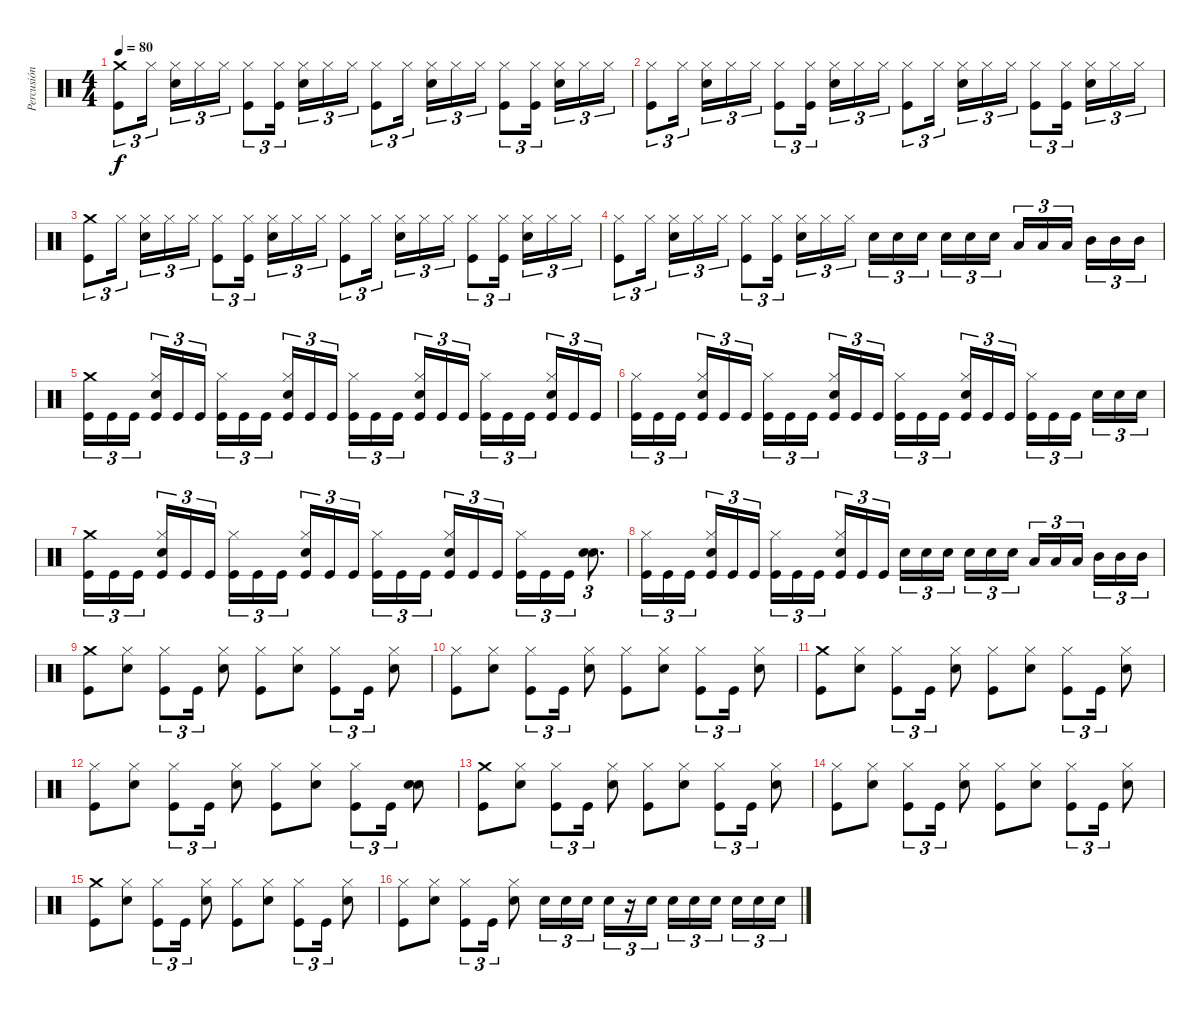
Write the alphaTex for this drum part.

\track ("Percusión con doble bombo" "Percusión ") {mute instrument percussion}
\staff {score}
\articulation defaults
\ts (4 4)
\tempo 80
\clef neutral
\ks c
("Crash medium (hit)" "Kick (hit)").8{tu (3 2) dy f} "Hi-Hat (closed)".16{tu (3 2) beam splitsecondary} ("Hi-Hat (closed)" "Snare (hit) 2").16{tu (3 2)} "Hi-Hat (closed)".16{tu (3 2)} "Hi-Hat (closed)".16{tu (3 2)} ("Hi-Hat (closed)" "Kick (hit)").8{tu (3 2)} ("Hi-Hat (closed)" "Kick (hit)").16{tu (3 2) beam splitsecondary} ("Hi-Hat (closed)" "Snare (hit) 2").16{tu (3 2)} "Hi-Hat (closed)".16{tu (3 2)} "Hi-Hat (closed)".16{tu (3 2)} ("Hi-Hat (closed)" "Kick (hit)").8{tu (3 2)} "Hi-Hat (closed)".16{tu (3 2) beam splitsecondary} ("Hi-Hat (closed)" "Snare (hit) 2").16{tu (3 2)} "Hi-Hat (closed)".16{tu (3 2)} "Hi-Hat (closed)".16{tu (3 2)} ("Hi-Hat (closed)" "Kick (hit)").8{tu (3 2)} ("Hi-Hat (closed)" "Kick (hit)").16{tu (3 2) beam splitsecondary} ("Hi-Hat (closed)" "Snare (hit) 2").16{tu (3 2)} "Hi-Hat (closed)".16{tu (3 2)} "Hi-Hat (closed)".16{tu (3 2)} |
("Hi-Hat (closed)" "Kick (hit)").8{tu (3 2)} "Hi-Hat (closed)".16{tu (3 2) beam splitsecondary} ("Hi-Hat (closed)" "Snare (hit) 2").16{tu (3 2)} "Hi-Hat (closed)".16{tu (3 2)} "Hi-Hat (closed)".16{tu (3 2)} ("Hi-Hat (closed)" "Kick (hit)").8{tu (3 2)} ("Hi-Hat (closed)" "Kick (hit)").16{tu (3 2) beam splitsecondary} ("Hi-Hat (closed)" "Snare (hit) 2").16{tu (3 2)} "Hi-Hat (closed)".16{tu (3 2)} "Hi-Hat (closed)".16{tu (3 2)} ("Hi-Hat (closed)" "Kick (hit)").8{tu (3 2)} "Hi-Hat (closed)".16{tu (3 2) beam splitsecondary} ("Hi-Hat (closed)" "Snare (hit) 2").16{tu (3 2)} "Hi-Hat (closed)".16{tu (3 2)} "Hi-Hat (closed)".16{tu (3 2)} ("Hi-Hat (closed)" "Kick (hit)").8{tu (3 2)} ("Hi-Hat (closed)" "Kick (hit)").16{tu (3 2) beam splitsecondary} ("Hi-Hat (closed)" "Snare (hit) 2").16{tu (3 2)} "Hi-Hat (closed)".16{tu (3 2)} "Hi-Hat (closed)".16{tu (3 2)} |
("Crash medium (hit)" "Kick (hit)").8{tu (3 2)} "Hi-Hat (closed)".16{tu (3 2) beam splitsecondary} ("Hi-Hat (closed)" "Snare (hit) 2").16{tu (3 2)} "Hi-Hat (closed)".16{tu (3 2)} "Hi-Hat (closed)".16{tu (3 2)} ("Hi-Hat (closed)" "Kick (hit)").8{tu (3 2)} ("Hi-Hat (closed)" "Kick (hit)").16{tu (3 2) beam splitsecondary} ("Hi-Hat (closed)" "Snare (hit) 2").16{tu (3 2)} "Hi-Hat (closed)".16{tu (3 2)} "Hi-Hat (closed)".16{tu (3 2)} ("Hi-Hat (closed)" "Kick (hit)").8{tu (3 2)} "Hi-Hat (closed)".16{tu (3 2) beam splitsecondary} ("Hi-Hat (closed)" "Snare (hit) 2").16{tu (3 2)} "Hi-Hat (closed)".16{tu (3 2)} "Hi-Hat (closed)".16{tu (3 2)} ("Hi-Hat (closed)" "Kick (hit)").8{tu (3 2)} ("Hi-Hat (closed)" "Kick (hit)").16{tu (3 2) beam splitsecondary} ("Hi-Hat (closed)" "Snare (hit) 2").16{tu (3 2)} "Hi-Hat (closed)".16{tu (3 2)} "Hi-Hat (closed)".16{tu (3 2)} |
("Hi-Hat (closed)" "Kick (hit)").8{tu (3 2)} "Hi-Hat (closed)".16{tu (3 2) beam splitsecondary} ("Hi-Hat (closed)" "Snare (hit) 2").16{tu (3 2)} "Hi-Hat (closed)".16{tu (3 2)} "Hi-Hat (closed)".16{tu (3 2)} ("Hi-Hat (closed)" "Kick (hit)").8{tu (3 2)} ("Hi-Hat (closed)" "Kick (hit)").16{tu (3 2) beam splitsecondary} ("Hi-Hat (closed)" "Snare (hit) 2").16{tu (3 2)} "Hi-Hat (closed)".16{tu (3 2)} "Hi-Hat (closed)".16{tu (3 2)} "Snare (hit) 2".16{tu (3 2)} "Snare (hit) 2".16{tu (3 2)} "Snare (hit) 2".16{tu (3 2) beam splitsecondary} "Snare (hit) 2".16{tu (3 2)} "Snare (hit) 2".16{tu (3 2)} "Snare (hit) 2".16{tu (3 2)} "Low Tom (hit)".16{tu (3 2)} "Low Tom (hit)".16{tu (3 2)} "Low Tom (hit)".16{tu (3 2) beam splitsecondary} "Mid Tom (hit)".16{tu (3 2)} "Mid Tom (hit)".16{tu (3 2)} "Mid Tom (hit)".16{tu (3 2)} |
("Crash medium (hit)" "Kick (hit)").16{tu (3 2)} "Kick (hit)".16{tu (3 2)} "Kick (hit)".16{tu (3 2) beam splitsecondary} ("Hi-Hat (closed)" "Snare (hit) 2" "Kick (hit)").16{tu (3 2)} "Kick (hit)".16{tu (3 2)} "Kick (hit)".16{tu (3 2)} ("Hi-Hat (closed)" "Kick (hit)").16{tu (3 2)} "Kick (hit)".16{tu (3 2)} "Kick (hit)".16{tu (3 2) beam splitsecondary} ("Hi-Hat (closed)" "Snare (hit) 2" "Kick (hit)").16{tu (3 2)} "Kick (hit)".16{tu (3 2)} "Kick (hit)".16{tu (3 2)} ("Hi-Hat (closed)" "Kick (hit)").16{tu (3 2)} "Kick (hit)".16{tu (3 2)} "Kick (hit)".16{tu (3 2) beam splitsecondary} ("Hi-Hat (closed)" "Snare (hit) 2" "Kick (hit)").16{tu (3 2)} "Kick (hit)".16{tu (3 2)} "Kick (hit)".16{tu (3 2)} ("Hi-Hat (closed)" "Kick (hit)").16{tu (3 2)} "Kick (hit)".16{tu (3 2)} "Kick (hit)".16{tu (3 2) beam splitsecondary} ("Hi-Hat (closed)" "Snare (hit) 2" "Kick (hit)").16{tu (3 2)} "Kick (hit)".16{tu (3 2)} "Kick (hit)".16{tu (3 2)} |
("Hi-Hat (closed)" "Kick (hit)").16{tu (3 2)} "Kick (hit)".16{tu (3 2)} "Kick (hit)".16{tu (3 2) beam splitsecondary} ("Hi-Hat (closed)" "Snare (hit) 2" "Kick (hit)").16{tu (3 2)} "Kick (hit)".16{tu (3 2)} "Kick (hit)".16{tu (3 2)} ("Hi-Hat (closed)" "Kick (hit)").16{tu (3 2)} "Kick (hit)".16{tu (3 2)} "Kick (hit)".16{tu (3 2) beam splitsecondary} ("Hi-Hat (closed)" "Snare (hit) 2" "Kick (hit)").16{tu (3 2)} "Kick (hit)".16{tu (3 2)} "Kick (hit)".16{tu (3 2)} ("Hi-Hat (closed)" "Kick (hit)").16{tu (3 2)} "Kick (hit)".16{tu (3 2)} "Kick (hit)".16{tu (3 2) beam splitsecondary} ("Hi-Hat (closed)" "Snare (hit) 2" "Kick (hit)").16{tu (3 2)} "Kick (hit)".16{tu (3 2)} "Kick (hit)".16{tu (3 2)} ("Hi-Hat (closed)" "Kick (hit)").16{tu (3 2)} "Kick (hit)".16{tu (3 2)} "Kick (hit)".16{tu (3 2) beam splitsecondary} "Snare (hit) 2".16{tu (3 2)} "Snare (hit) 2".16{tu (3 2)} "Snare (hit) 2".16{tu (3 2)} |
("Crash medium (hit)" "Kick (hit)").16{tu (3 2)} "Kick (hit)".16{tu (3 2)} "Kick (hit)".16{tu (3 2) beam splitsecondary} ("Hi-Hat (closed)" "Snare (hit) 2" "Kick (hit)").16{tu (3 2)} "Kick (hit)".16{tu (3 2)} "Kick (hit)".16{tu (3 2)} ("Hi-Hat (closed)" "Kick (hit)").16{tu (3 2)} "Kick (hit)".16{tu (3 2)} "Kick (hit)".16{tu (3 2) beam splitsecondary} ("Hi-Hat (closed)" "Snare (hit) 2" "Kick (hit)").16{tu (3 2)} "Kick (hit)".16{tu (3 2)} "Kick (hit)".16{tu (3 2)} ("Hi-Hat (closed)" "Kick (hit)").16{tu (3 2)} "Kick (hit)".16{tu (3 2)} "Kick (hit)".16{tu (3 2) beam splitsecondary} ("Hi-Hat (closed)" "Snare (hit) 2" "Kick (hit)").16{tu (3 2)} "Kick (hit)".16{tu (3 2)} "Kick (hit)".16{tu (3 2)} ("Hi-Hat (closed)" "Kick (hit)").16{tu (3 2)} "Kick (hit)".16{tu (3 2)} "Kick (hit)".16{tu (3 2)} ("Snare (hit) 2" "Snare (hit) 2").8{d tu (3 2) bd 480} |
("Hi-Hat (closed)" "Kick (hit)").16{tu (3 2)} "Kick (hit)".16{tu (3 2)} "Kick (hit)".16{tu (3 2) beam splitsecondary} ("Hi-Hat (closed)" "Snare (hit) 2" "Kick (hit)").16{tu (3 2)} "Kick (hit)".16{tu (3 2)} "Kick (hit)".16{tu (3 2)} ("Hi-Hat (closed)" "Kick (hit)").16{tu (3 2)} "Kick (hit)".16{tu (3 2)} "Kick (hit)".16{tu (3 2) beam splitsecondary} ("Hi-Hat (closed)" "Snare (hit) 2" "Kick (hit)").16{tu (3 2)} "Kick (hit)".16{tu (3 2)} "Kick (hit)".16{tu (3 2)} "Snare (hit) 2".16{tu (3 2)} "Snare (hit) 2".16{tu (3 2)} "Snare (hit) 2".16{tu (3 2) beam splitsecondary} "Snare (hit) 2".16{tu (3 2)} "Snare (hit) 2".16{tu (3 2)} "Snare (hit) 2".16{tu (3 2)} "Low Tom (hit)".16{tu (3 2)} "Low Tom (hit)".16{tu (3 2)} "Low Tom (hit)".16{tu (3 2) beam splitsecondary} "Mid Tom (hit)".16{tu (3 2)} "Mid Tom (hit)".16{tu (3 2)} "Mid Tom (hit)".16{tu (3 2)} |
("Crash medium (hit)" "Kick (hit)").8 ("Hi-Hat (closed)" "Snare (hit) 2").8 ("Hi-Hat (closed)" "Kick (hit)").8{tu (3 2)} "Kick (hit)".16{tu (3 2)} ("Hi-Hat (closed)" "Snare (hit) 2").8 ("Hi-Hat (closed)" "Kick (hit)").8 ("Hi-Hat (closed)" "Snare (hit) 2").8 ("Hi-Hat (closed)" "Kick (hit)").8{tu (3 2)} "Kick (hit)".16{tu (3 2)} ("Hi-Hat (closed)" "Snare (hit) 2").8 |
("Hi-Hat (closed)" "Kick (hit)").8 ("Hi-Hat (closed)" "Snare (hit) 2").8 ("Hi-Hat (closed)" "Kick (hit)").8{tu (3 2)} "Kick (hit)".16{tu (3 2)} ("Hi-Hat (closed)" "Snare (hit) 2").8 ("Hi-Hat (closed)" "Kick (hit)").8 ("Hi-Hat (closed)" "Snare (hit) 2").8 ("Hi-Hat (closed)" "Kick (hit)").8{tu (3 2)} "Kick (hit)".16{tu (3 2)} ("Hi-Hat (closed)" "Snare (hit) 2").8 |
("Crash medium (hit)" "Kick (hit)").8 ("Hi-Hat (closed)" "Snare (hit) 2").8 ("Hi-Hat (closed)" "Kick (hit)").8{tu (3 2)} "Kick (hit)".16{tu (3 2)} ("Hi-Hat (closed)" "Snare (hit) 2").8 ("Hi-Hat (closed)" "Kick (hit)").8 ("Hi-Hat (closed)" "Snare (hit) 2").8 ("Hi-Hat (closed)" "Kick (hit)").8{tu (3 2)} "Kick (hit)".16{tu (3 2)} ("Hi-Hat (closed)" "Snare (hit) 2").8 |
("Hi-Hat (closed)" "Kick (hit)").8 ("Hi-Hat (closed)" "Snare (hit) 2").8 ("Hi-Hat (closed)" "Kick (hit)").8{tu (3 2)} "Kick (hit)".16{tu (3 2)} ("Hi-Hat (closed)" "Snare (hit) 2").8 ("Hi-Hat (closed)" "Kick (hit)").8 ("Hi-Hat (closed)" "Snare (hit) 2").8 ("Hi-Hat (closed)" "Kick (hit)").8{tu (3 2)} "Kick (hit)".16{tu (3 2)} ("Snare (hit) 2" "Snare (hit) 2").8{bd 480} |
("Crash medium (hit)" "Kick (hit)").8 ("Hi-Hat (closed)" "Snare (hit) 2").8 ("Hi-Hat (closed)" "Kick (hit)").8{tu (3 2)} "Kick (hit)".16{tu (3 2)} ("Hi-Hat (closed)" "Snare (hit) 2").8 ("Hi-Hat (closed)" "Kick (hit)").8 ("Hi-Hat (closed)" "Snare (hit) 2").8 ("Hi-Hat (closed)" "Kick (hit)").8{tu (3 2)} "Kick (hit)".16{tu (3 2)} ("Hi-Hat (closed)" "Snare (hit) 2").8 |
("Hi-Hat (closed)" "Kick (hit)").8 ("Hi-Hat (closed)" "Snare (hit) 2").8 ("Hi-Hat (closed)" "Kick (hit)").8{tu (3 2)} "Kick (hit)".16{tu (3 2)} ("Hi-Hat (closed)" "Snare (hit) 2").8 ("Hi-Hat (closed)" "Kick (hit)").8 ("Hi-Hat (closed)" "Snare (hit) 2").8 ("Hi-Hat (closed)" "Kick (hit)").8{tu (3 2)} "Kick (hit)".16{tu (3 2)} ("Hi-Hat (closed)" "Snare (hit) 2").8 |
("Crash medium (hit)" "Kick (hit)").8 ("Hi-Hat (closed)" "Snare (hit) 2").8 ("Hi-Hat (closed)" "Kick (hit)").8{tu (3 2)} "Kick (hit)".16{tu (3 2)} ("Hi-Hat (closed)" "Snare (hit) 2").8 ("Hi-Hat (closed)" "Kick (hit)").8 ("Hi-Hat (closed)" "Snare (hit) 2").8 ("Hi-Hat (closed)" "Kick (hit)").8{tu (3 2)} "Kick (hit)".16{tu (3 2)} ("Hi-Hat (closed)" "Snare (hit) 2").8 |
("Hi-Hat (closed)" "Kick (hit)").8 ("Hi-Hat (closed)" "Snare (hit) 2").8 ("Hi-Hat (closed)" "Kick (hit)").8{tu (3 2)} "Kick (hit)".16{tu (3 2)} ("Hi-Hat (closed)" "Snare (hit) 2").8 "Snare (hit) 2".16{tu (3 2)} "Snare (hit) 2".16{tu (3 2)} "Snare (hit) 2".16{tu (3 2) beam splitsecondary} "Snare (hit) 2".16{tu (3 2)} r.16{tu (3 2)} "Snare (hit) 2".16{tu (3 2)} "Snare (hit) 2".16{tu (3 2)} "Snare (hit) 2".16{tu (3 2)} "Snare (hit) 2".16{tu (3 2) beam splitsecondary} "Snare (hit) 2".16{tu (3 2)} "Snare (hit) 2".16{tu (3 2)} "Snare (hit) 2".16{tu (3 2)}
